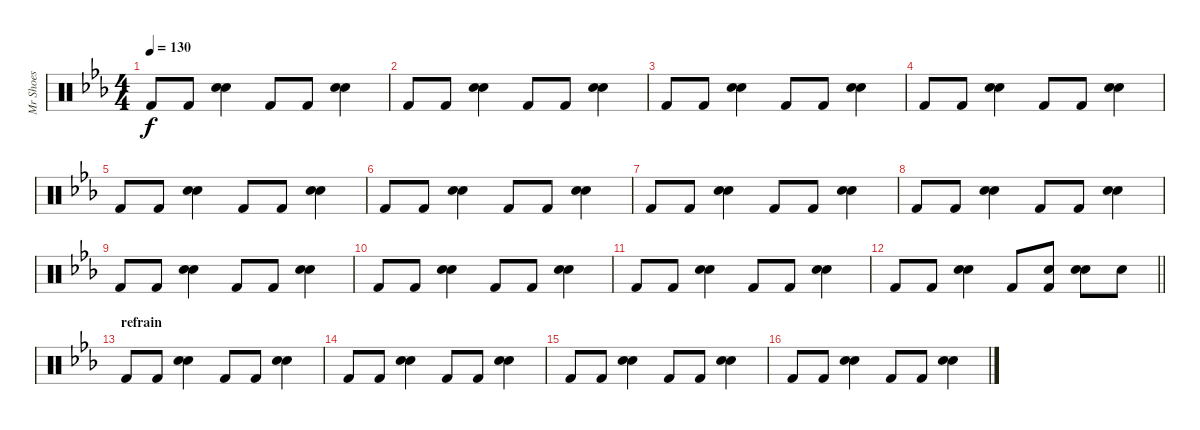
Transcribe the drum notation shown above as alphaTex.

\track ("Mr Shoes " "Mr Shoes ") {instrument percussion}
\staff {score}
\articulation defaults
\ts (4 4)
\tempo 130
\clef neutral
\ks eb "Kick (hit) 2".8{dy f} "Kick (hit) 2".8
("Electric Snare (hit)" "Snare (hit) 2").4 "Kick (hit) 2".8 "Kick (hit) 2".8 ("Electric Snare (hit)" "Snare (hit) 2").4 |
"Kick (hit) 2".8 "Kick (hit) 2".8 ("Electric Snare (hit)" "Snare (hit) 2").4 "Kick (hit) 2".8 "Kick (hit) 2".8 ("Electric Snare (hit)" "Snare (hit) 2").4 |
"Kick (hit) 2".8 "Kick (hit) 2".8 ("Electric Snare (hit)" "Snare (hit) 2").4 "Kick (hit) 2".8 "Kick (hit) 2".8 ("Electric Snare (hit)" "Snare (hit) 2").4 |
"Kick (hit) 2".8 "Kick (hit) 2".8 ("Electric Snare (hit)" "Snare (hit) 2").4 "Kick (hit) 2".8 "Kick (hit) 2".8 ("Electric Snare (hit)" "Snare (hit) 2").4 |
"Kick (hit) 2".8 "Kick (hit) 2".8 ("Electric Snare (hit)" "Snare (hit) 2").4 "Kick (hit) 2".8 "Kick (hit) 2".8 ("Electric Snare (hit)" "Snare (hit) 2").4 |
"Kick (hit) 2".8 "Kick (hit) 2".8 ("Electric Snare (hit)" "Snare (hit) 2").4 "Kick (hit) 2".8 "Kick (hit) 2".8 ("Electric Snare (hit)" "Snare (hit) 2").4 |
"Kick (hit) 2".8 "Kick (hit) 2".8 ("Electric Snare (hit)" "Snare (hit) 2").4 "Kick (hit) 2".8 "Kick (hit) 2".8 ("Electric Snare (hit)" "Snare (hit) 2").4 |
"Kick (hit) 2".8 "Kick (hit) 2".8 ("Electric Snare (hit)" "Snare (hit) 2").4 "Kick (hit) 2".8 "Kick (hit) 2".8 ("Electric Snare (hit)" "Snare (hit) 2").4 |
"Kick (hit) 2".8 "Kick (hit) 2".8 ("Electric Snare (hit)" "Snare (hit) 2").4 "Kick (hit) 2".8 "Kick (hit) 2".8 ("Electric Snare (hit)" "Snare (hit) 2").4 |
"Kick (hit) 2".8 "Kick (hit) 2".8 ("Electric Snare (hit)" "Snare (hit) 2").4 "Kick (hit) 2".8 "Kick (hit) 2".8 ("Electric Snare (hit)" "Snare (hit) 2").4 |
"Kick (hit) 2".8 "Kick (hit) 2".8 ("Electric Snare (hit)" "Snare (hit) 2").4 "Kick (hit) 2".8 "Kick (hit) 2".8 ("Electric Snare (hit)" "Snare (hit) 2").4 |
\barLineRight lightlight "Kick (hit) 2".8 "Kick (hit) 2".8
("Electric Snare (hit)" "Snare (hit) 2").4 "Kick (hit) 2".8 ("Electric Snare (hit)" "Kick (hit) 2").8 ("Electric Snare (hit)" "Snare (hit) 2").8 "Electric Snare (hit)".8 |
\section ("" "refrain")
"Kick (hit) 2".8 "Kick (hit) 2".8 ("Electric Snare (hit)" "Snare (hit) 2").4 "Kick (hit) 2".8 "Kick (hit) 2".8 ("Electric Snare (hit)" "Snare (hit) 2").4 |
"Kick (hit) 2".8 "Kick (hit) 2".8 ("Electric Snare (hit)" "Snare (hit) 2").4 "Kick (hit) 2".8 "Kick (hit) 2".8 ("Electric Snare (hit)" "Snare (hit) 2").4 |
"Kick (hit) 2".8 "Kick (hit) 2".8 ("Electric Snare (hit)" "Snare (hit) 2").4 "Kick (hit) 2".8 "Kick (hit) 2".8 ("Electric Snare (hit)" "Snare (hit) 2").4 |
"Kick (hit) 2".8 "Kick (hit) 2".8 ("Electric Snare (hit)" "Snare (hit) 2").4 "Kick (hit) 2".8 "Kick (hit) 2".8 ("Electric Snare (hit)" "Snare (hit) 2").4
